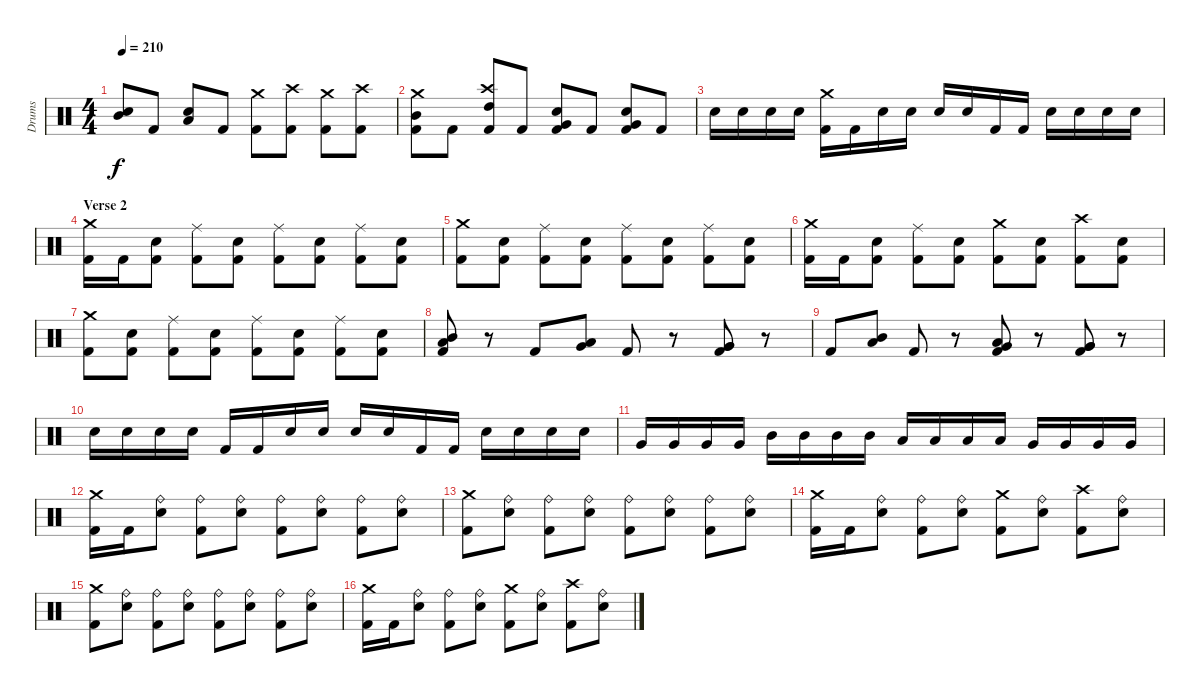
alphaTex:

\track ("Drums" "Drums") {instrument percussion}
\staff {score}
\articulation defaults
\ts (4 4)
\tempo 210
\clef neutral
\ks c
("Snare (hit) 2" "Mid Tom (hit)").8{dy f} "Kick (hit) 2".8 ("Snare (hit) 2" "Low Tom (hit)").8 "Kick (hit) 2".8 ("Kick (hit) 2" "Crash medium (hit)").8 ("Kick (hit) 2" "Crash high (hit)").8 ("Kick (hit) 2" "Crash medium (hit)").8 ("Kick (hit) 2" "Crash high (hit)").8 |
("Kick (hit) 2" "Mid Tom (hit)" "Crash medium (hit)").8 "Kick (hit) 2".8 ("Kick (hit) 2" "High Tom (hit)" "Crash high (hit)").8 "Kick (hit) 2".8 ("Kick (hit) 2" "Snare (hit) 2" "Very Low Tom (hit)").8 "Kick (hit) 2".8 ("Kick (hit) 2" "Snare (hit) 2" "Very Low Tom (hit)").8 "Kick (hit) 2".8 |
"Snare (hit) 2".16 "Snare (hit) 2".16 "Snare (hit) 2".16 "Snare (hit) 2".16 ("Kick (hit) 2" "Crash medium (hit)").16 "Kick (hit) 2".16 "Snare (hit) 2".16 "Snare (hit) 2".16 "Snare (hit) 2".16 "Snare (hit) 2".16 "Kick (hit) 2".16 "Kick (hit) 2".16 "Snare (hit) 2".16 "Snare (hit) 2".16 "Snare (hit) 2".16 "Snare (hit) 2".16 |
\section ("" "Verse 2")
("Kick (hit) 2" "Crash medium (hit)").16 "Kick (hit) 2".16 ("Kick (hit) 2" "Snare (hit) 2").8 ("Kick (hit) 2" "Ride (middle)").8 ("Kick (hit) 2" "Snare (hit) 2").8 ("Kick (hit) 2" "Ride (middle)").8 ("Kick (hit) 2" "Snare (hit) 2").8 ("Kick (hit) 2" "Ride (middle)").8 ("Kick (hit) 2" "Snare (hit) 2").8 |
("Kick (hit) 2" "Crash medium (hit)").8 ("Kick (hit) 2" "Snare (hit) 2").8 ("Kick (hit) 2" "Ride (middle)").8 ("Kick (hit) 2" "Snare (hit) 2").8 ("Kick (hit) 2" "Ride (middle)").8 ("Kick (hit) 2" "Snare (hit) 2").8 ("Kick (hit) 2" "Ride (middle)").8 ("Kick (hit) 2" "Snare (hit) 2").8 |
("Kick (hit) 2" "Crash medium (hit)").16 "Kick (hit) 2".16 ("Kick (hit) 2" "Snare (hit) 2").8 ("Kick (hit) 2" "Ride (middle)").8 ("Kick (hit) 2" "Snare (hit) 2").8 ("Kick (hit) 2" "Crash medium (hit)").8 ("Kick (hit) 2" "Snare (hit) 2").8 ("Kick (hit) 2" "Crash high (hit)").8 ("Kick (hit) 2" "Snare (hit) 2").8 |
("Kick (hit) 2" "Crash medium (hit)").8 ("Kick (hit) 2" "Snare (hit) 2").8 ("Kick (hit) 2" "Ride (middle)").8 ("Kick (hit) 2" "Snare (hit) 2").8 ("Kick (hit) 2" "Ride (middle)").8 ("Kick (hit) 2" "Snare (hit) 2").8 ("Kick (hit) 2" "Ride (middle)").8 ("Kick (hit) 2" "Snare (hit) 2").8 |
("Kick (hit) 2" "Mid Tom (hit)" "Low Tom (hit)").8 r.8 "Kick (hit) 2".8 ("Low Tom (hit)" "Very Low Tom (hit)").8 "Kick (hit) 2".8 r.8 ("Kick (hit) 2" "Very Low Tom (hit)" "Very Low Tom (hit)").8 r.8 |
"Kick (hit) 2".8 ("Mid Tom (hit)" "Low Tom (hit)").8 "Kick (hit) 2".8 r.8 ("Kick (hit) 2" "Low Tom (hit)" "Very Low Tom (hit)").8 r.8 ("Kick (hit) 2" "Very Low Tom (hit)" "Very Low Tom (hit)").8 r.8 |
"Snare (hit) 2".16 "Snare (hit) 2".16 "Snare (hit) 2".16 "Snare (hit) 2".16 "Kick (hit) 2".16 "Kick (hit) 2".16 "Snare (hit) 2".16 "Snare (hit) 2".16 "Snare (hit) 2".16 "Snare (hit) 2".16 "Kick (hit) 2".16 "Kick (hit) 2".16 "Snare (hit) 2".16 "Snare (hit) 2".16 "Snare (hit) 2".16 "Snare (hit) 2".16 |
"Very Low Tom (hit)".16 "Very Low Tom (hit)".16 "Very Low Tom (hit)".16 "Very Low Tom (hit)".16 "Mid Tom (hit)".16 "Mid Tom (hit)".16 "Mid Tom (hit)".16 "Mid Tom (hit)".16 "Low Tom (hit)".16 "Low Tom (hit)".16 "Low Tom (hit)".16 "Low Tom (hit)".16 "Very Low Tom (hit)".16 "Very Low Tom (hit)".16 "Very Low Tom (hit)".16 "Very Low Tom (hit)".16 |
("Kick (hit) 2" "Crash medium (hit)").16 "Kick (hit) 2".16 ("Snare (hit) 2" "Ride (bell)").8 ("Kick (hit) 2" "Ride (bell)").8 ("Snare (hit) 2" "Ride (bell)").8 ("Kick (hit) 2" "Ride (bell)").8 ("Snare (hit) 2" "Ride (bell)").8 ("Kick (hit) 2" "Ride (bell)").8 ("Snare (hit) 2" "Ride (bell)").8 |
("Kick (hit) 2" "Crash medium (hit)").8 ("Snare (hit) 2" "Ride (bell)").8 ("Kick (hit) 2" "Ride (bell)").8 ("Snare (hit) 2" "Ride (bell)").8 ("Kick (hit) 2" "Ride (bell)").8 ("Snare (hit) 2" "Ride (bell)").8 ("Kick (hit) 2" "Ride (bell)").8 ("Snare (hit) 2" "Ride (bell)").8 |
("Kick (hit) 2" "Crash medium (hit)").16 "Kick (hit) 2".16 ("Snare (hit) 2" "Ride (bell)").8 ("Kick (hit) 2" "Ride (bell)").8 ("Snare (hit) 2" "Ride (bell)").8 ("Kick (hit) 2" "Crash medium (hit)").8 ("Snare (hit) 2" "Ride (bell)").8 ("Kick (hit) 2" "Crash high (hit)").8 ("Snare (hit) 2" "Ride (bell)").8 |
("Kick (hit) 2" "Crash medium (hit)").8 ("Snare (hit) 2" "Ride (bell)").8 ("Kick (hit) 2" "Ride (bell)").8 ("Snare (hit) 2" "Ride (bell)").8 ("Kick (hit) 2" "Ride (bell)").8 ("Snare (hit) 2" "Ride (bell)").8 ("Kick (hit) 2" "Ride (bell)").8 ("Snare (hit) 2" "Ride (bell)").8 |
("Kick (hit) 2" "Crash medium (hit)").16 "Kick (hit) 2".16 ("Snare (hit) 2" "Ride (bell)").8 ("Kick (hit) 2" "Ride (bell)").8 ("Snare (hit) 2" "Ride (bell)").8 ("Kick (hit) 2" "Crash medium (hit)").8 ("Snare (hit) 2" "Ride (bell)").8 ("Kick (hit) 2" "Crash high (hit)").8 ("Snare (hit) 2" "Ride (bell)").8
